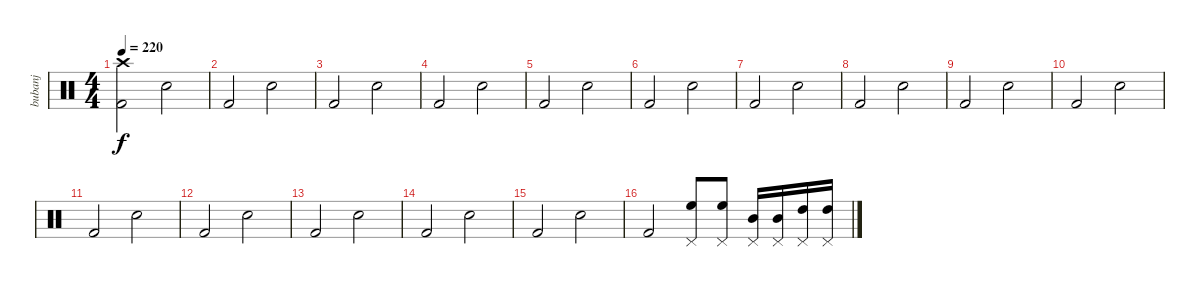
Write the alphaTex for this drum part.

\track ("bubanj" "bubanj") {instrument percussion}
\staff {score}
\articulation defaults
\ts (4 4)
\tempo 220
\clef neutral
\ks c
("Kick (hit) 2" "Crash high (hit)").2{dy f} "Snare (hit) 2".2 |
"Kick (hit) 2".2 "Snare (hit) 2".2 |
"Kick (hit) 2".2 "Snare (hit) 2".2 |
"Kick (hit) 2".2 "Snare (hit) 2".2 |
"Kick (hit) 2".2 "Snare (hit) 2".2 |
"Kick (hit) 2".2 "Snare (hit) 2".2 |
"Kick (hit) 2".2 "Snare (hit) 2".2 |
"Kick (hit) 2".2 "Snare (hit) 2".2 |
"Kick (hit) 2".2 "Snare (hit) 2".2 |
"Kick (hit) 2".2 "Snare (hit) 2".2 |
"Kick (hit) 2".2 "Snare (hit) 2".2 |
"Kick (hit) 2".2 "Snare (hit) 2".2 |
"Kick (hit) 2".2 "Snare (hit) 2".2 |
"Kick (hit) 2".2 "Snare (hit) 2".2 |
"Kick (hit) 2".2 "Snare (hit) 2".2 |
"Kick (hit) 2".2 ("High Floor Tom (hit)" "Pedal Hi-Hat (hit)").8 ("High Floor Tom (hit)" "Pedal Hi-Hat (hit)").8 ("Mid Tom (hit)" "Pedal Hi-Hat (hit)").16 ("Mid Tom (hit)" "Pedal Hi-Hat (hit)").16 ("High Tom (hit)" "Pedal Hi-Hat (hit)").16 ("High Tom (hit)" "Pedal Hi-Hat (hit)").16
